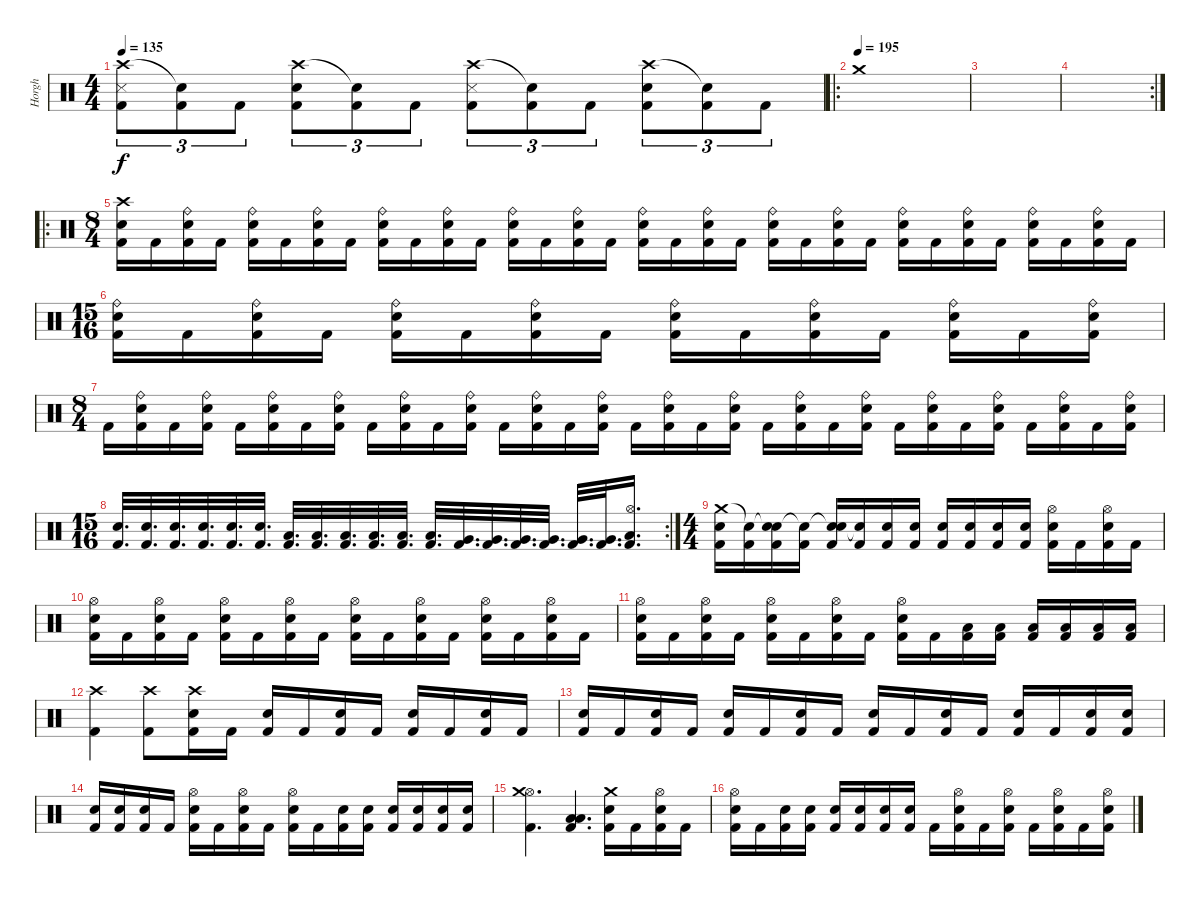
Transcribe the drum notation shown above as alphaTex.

\track ("Horgh" "Horgh") {instrument percussion}
\staff {score}
\articulation defaults
\ts (4 4)
\tempo 135
\clef neutral
\ks c
("Crash high (hit)" "Snare (side stick) 3" "Kick (hit) 2").8{tu (3 2) dy f} ("Snare (hit)"{t} "Kick (hit) 2").8{tu (3 2)} "Kick (hit) 2".8{tu (3 2)} ("Crash high (hit)" "Electric Snare (hit)" "Kick (hit) 2").8{tu (3 2)} ("Snare (hit)"{t} "Kick (hit) 2").8{tu (3 2)} "Kick (hit) 2".8{tu (3 2)} ("Crash high (hit)" "Snare (side stick) 3" "Kick (hit) 2").8{tu (3 2)} ("Snare (hit)"{t} "Kick (hit) 2").8{tu (3 2)} "Kick (hit) 2".8{tu (3 2)} ("Crash high (hit)" "Electric Snare (hit)" "Kick (hit) 2").8{tu (3 2)} ("Snare (hit)"{t} "Kick (hit) 2").8{tu (3 2)} "Kick (hit) 2".8{tu (3 2)} |
\ro
\tempo (195)
"Crash medium (hit)".1 |
|
\rc 2
|
\ro
\ts (8 4)
("Crash high (hit)" "Electric Snare (hit)" "Kick (hit) 2").16 "Kick (hit) 2".16 ("Ride (bell)" "Electric Snare (hit)" "Kick (hit) 2").16 "Kick (hit) 2".16 ("Ride (bell)" "Electric Snare (hit)" "Kick (hit) 2").16 "Kick (hit) 2".16 ("Ride (bell)" "Electric Snare (hit)" "Kick (hit) 2").16 "Kick (hit) 2".16 ("Ride (bell)" "Electric Snare (hit)" "Kick (hit) 2").16 "Kick (hit) 2".16 ("Ride (bell)" "Electric Snare (hit)" "Kick (hit) 2").16 "Kick (hit) 2".16 ("Ride (bell)" "Electric Snare (hit)" "Kick (hit) 2").16 "Kick (hit) 2".16 ("Ride (bell)" "Electric Snare (hit)" "Kick (hit) 2").16 "Kick (hit) 2".16 ("Ride (bell)" "Electric Snare (hit)" "Kick (hit) 2").16 "Kick (hit) 2".16 ("Ride (bell)" "Electric Snare (hit)" "Kick (hit) 2").16 "Kick (hit) 2".16 ("Ride (bell)" "Electric Snare (hit)" "Kick (hit) 2").16 "Kick (hit) 2".16 ("Ride (bell)" "Electric Snare (hit)" "Kick (hit) 2").16 "Kick (hit) 2".16 ("Ride (bell)" "Electric Snare (hit)" "Kick (hit) 2").16 "Kick (hit) 2".16 ("Ride (bell)" "Electric Snare (hit)" "Kick (hit) 2").16 "Kick (hit) 2".16 ("Ride (bell)" "Electric Snare (hit)" "Kick (hit) 2").16 "Kick (hit) 2".16 ("Ride (bell)" "Electric Snare (hit)" "Kick (hit) 2").16 "Kick (hit) 2".16 |
\ts (15 16)
("Ride (bell)" "Electric Snare (hit)" "Kick (hit) 2").16 "Kick (hit) 2".16 ("Ride (bell)" "Electric Snare (hit)" "Kick (hit) 2").16 "Kick (hit) 2".16 ("Ride (bell)" "Electric Snare (hit)" "Kick (hit) 2").16 "Kick (hit) 2".16 ("Ride (bell)" "Electric Snare (hit)" "Kick (hit) 2").16 "Kick (hit) 2".16 ("Ride (bell)" "Electric Snare (hit)" "Kick (hit) 2").16 "Kick (hit) 2".16 ("Ride (bell)" "Electric Snare (hit)" "Kick (hit) 2").16 "Kick (hit) 2".16 ("Ride (bell)" "Electric Snare (hit)" "Kick (hit) 2").16 "Kick (hit) 2".16 ("Ride (bell)" "Electric Snare (hit)" "Kick (hit) 2").16 |
\ts (8 4)
"Kick (hit) 2".16 ("Ride (bell)" "Electric Snare (hit)" "Kick (hit) 2").16 "Kick (hit) 2".16 ("Ride (bell)" "Electric Snare (hit)" "Kick (hit) 2").16 "Kick (hit) 2".16 ("Ride (bell)" "Electric Snare (hit)" "Kick (hit) 2").16 "Kick (hit) 2".16 ("Ride (bell)" "Electric Snare (hit)" "Kick (hit) 2").16 "Kick (hit) 2".16 ("Ride (bell)" "Electric Snare (hit)" "Kick (hit) 2").16 "Kick (hit) 2".16 ("Ride (bell)" "Electric Snare (hit)" "Kick (hit) 2").16 "Kick (hit) 2".16 ("Ride (bell)" "Electric Snare (hit)" "Kick (hit) 2").16 "Kick (hit) 2".16 ("Ride (bell)" "Electric Snare (hit)" "Kick (hit) 2").16 "Kick (hit) 2".16 ("Ride (bell)" "Electric Snare (hit)" "Kick (hit) 2").16 "Kick (hit) 2".16 ("Ride (bell)" "Electric Snare (hit)" "Kick (hit) 2").16 "Kick (hit) 2".16 ("Ride (bell)" "Electric Snare (hit)" "Kick (hit) 2").16 "Kick (hit) 2".16 ("Ride (bell)" "Electric Snare (hit)" "Kick (hit) 2").16 "Kick (hit) 2".16 ("Ride (bell)" "Electric Snare (hit)" "Kick (hit) 2").16 "Kick (hit) 2".16 ("Ride (bell)" "Electric Snare (hit)" "Kick (hit) 2").16 "Kick (hit) 2".16 ("Ride (bell)" "Electric Snare (hit)" "Kick (hit) 2").16 "Kick (hit) 2".16 ("Ride (bell)" "Electric Snare (hit)" "Kick (hit) 2").16 |
\rc 2
\ts (15 16)
("Electric Snare (hit)" "Kick (hit) 2").32{d} ("Electric Snare (hit)" "Kick (hit) 2").32{d} ("Electric Snare (hit)" "Kick (hit) 2").32{d} ("Electric Snare (hit)" "Kick (hit) 2").32{d} ("Electric Snare (hit)" "Kick (hit) 2").32{d} ("Electric Snare (hit)" "Kick (hit) 2").32{d} ("Low Floor Tom (hit)" "Kick (hit) 2").32{d} ("Low Floor Tom (hit)" "Kick (hit) 2").32{d} ("Low Floor Tom (hit)" "Kick (hit) 2").32{d} ("Low Floor Tom (hit)" "Kick (hit) 2").32{d} ("Low Floor Tom (hit)" "Kick (hit) 2").32{d} ("Low Floor Tom (hit)" "Kick (hit) 2").32{d} ("Very Low Tom (hit)" "Kick (hit) 2").32{d} ("Very Low Tom (hit)" "Kick (hit) 2").32{d} ("Very Low Tom (hit)" "Kick (hit) 2").32{d} ("Very Low Tom (hit)" "Kick (hit) 2").32{d} ("Very Low Tom (hit)" "Kick (hit) 2").32{d} ("Very Low Tom (hit)" "Kick (hit) 2").32{d} ("Hi-Hat (open)" "Low Tom (hit)" "Kick (hit) 2").16{d} |
\ts (4 4)
("Crash medium (hit)" "Electric Snare (hit)" "Kick (hit) 2").16 ("Snare (hit)"{t} "Kick (hit) 2").16 ("Snare (hit)"{t} "Electric Snare (hit)" "Kick (hit) 2").16 ("Snare (hit)"{t} "Kick (hit) 2").16 ("Snare (hit)"{t} "Electric Snare (hit)" "Kick (hit) 2").16 ("Snare (hit)"{t} "Kick (hit) 2").16 ("Electric Snare (hit)" "Kick (hit) 2").16 ("Electric Snare (hit)" "Kick (hit) 2").16 ("Electric Snare (hit)" "Kick (hit) 2").16 ("Electric Snare (hit)" "Kick (hit) 2").16 ("Electric Snare (hit)" "Kick (hit) 2").16 ("Electric Snare (hit)" "Kick (hit) 2").16 ("Hi-Hat (open)" "Electric Snare (hit)" "Kick (hit) 2").16 "Kick (hit) 2".16 ("Hi-Hat (open)" "Electric Snare (hit)" "Kick (hit) 2").16 "Kick (hit) 2".16 |
("Hi-Hat (open)" "Electric Snare (hit)" "Kick (hit) 2").16 "Kick (hit) 2".16 ("Hi-Hat (open)" "Electric Snare (hit)" "Kick (hit) 2").16 "Kick (hit) 2".16 ("Hi-Hat (open)" "Electric Snare (hit)" "Kick (hit) 2").16 "Kick (hit) 2".16 ("Hi-Hat (open)" "Electric Snare (hit)" "Kick (hit) 2").16 "Kick (hit) 2".16 ("Hi-Hat (open)" "Electric Snare (hit)" "Kick (hit) 2").16 "Kick (hit) 2".16 ("Hi-Hat (open)" "Electric Snare (hit)" "Kick (hit) 2").16 "Kick (hit) 2".16 ("Hi-Hat (open)" "Electric Snare (hit)" "Kick (hit) 2").16 "Kick (hit) 2".16 ("Hi-Hat (open)" "Electric Snare (hit)" "Kick (hit) 2").16 "Kick (hit) 2".16 |
("Hi-Hat (open)" "Electric Snare (hit)" "Kick (hit) 2").16 "Kick (hit) 2".16 ("Hi-Hat (open)" "Electric Snare (hit)" "Kick (hit) 2").16 "Kick (hit) 2".16 ("Hi-Hat (open)" "Electric Snare (hit)" "Kick (hit) 2").16 "Kick (hit) 2".16 ("Hi-Hat (open)" "Electric Snare (hit)" "Kick (hit) 2").16 "Kick (hit) 2".16 ("Hi-Hat (open)" "Electric Snare (hit)" "Kick (hit) 2").16 "Kick (hit) 2".16 ("Low Floor Tom (hit)" "Kick (hit) 2").16 ("Low Floor Tom (hit)" "Kick (hit) 2").16 ("Low Floor Tom (hit)" "Kick (hit) 2").16 ("Low Floor Tom (hit)" "Kick (hit) 2").16 ("Low Floor Tom (hit)" "Kick (hit) 2").16 ("Low Floor Tom (hit)" "Kick (hit) 2").16 |
("Crash high (hit)" "Kick (hit) 2").4 ("Crash high (hit)" "Kick (hit) 2").8 ("Crash high (hit)" "Electric Snare (hit)" "Kick (hit) 2").16 "Kick (hit) 2".16 ("Electric Snare (hit)" "Kick (hit) 2").16 "Kick (hit) 2".16 ("Electric Snare (hit)" "Kick (hit) 2").16 "Kick (hit) 2".16 ("Electric Snare (hit)" "Kick (hit) 2").16 "Kick (hit) 2".16 ("Electric Snare (hit)" "Kick (hit) 2").16 "Kick (hit) 2".16 |
("Electric Snare (hit)" "Kick (hit) 2").16 "Kick (hit) 2".16 ("Electric Snare (hit)" "Kick (hit) 2").16 "Kick (hit) 2".16 ("Electric Snare (hit)" "Kick (hit) 2").16 "Kick (hit) 2".16 ("Electric Snare (hit)" "Kick (hit) 2").16 "Kick (hit) 2".16 ("Electric Snare (hit)" "Kick (hit) 2").16 "Kick (hit) 2".16 ("Electric Snare (hit)" "Kick (hit) 2").16 "Kick (hit) 2".16 ("Electric Snare (hit)" "Kick (hit) 2").16 "Kick (hit) 2".16 ("Electric Snare (hit)" "Kick (hit) 2").16 ("Electric Snare (hit)" "Kick (hit) 2").16 |
("Electric Snare (hit)" "Kick (hit) 2").16 ("Electric Snare (hit)" "Kick (hit) 2").16 ("Electric Snare (hit)" "Kick (hit) 2").16 "Kick (hit) 2".16 ("Hi-Hat (open)" "Electric Snare (hit)" "Kick (hit) 2").16 "Kick (hit) 2".16 ("Hi-Hat (open)" "Electric Snare (hit)" "Kick (hit) 2").16 "Kick (hit) 2".16 ("Hi-Hat (open)" "Electric Snare (hit)" "Kick (hit) 2").16 "Kick (hit) 2".16 ("Electric Snare (hit)" "Kick (hit) 2").16 ("Electric Snare (hit)" "Kick (hit) 2").16 ("Electric Snare (hit)" "Kick (hit) 2").16 ("Electric Snare (hit)" "Kick (hit) 2").16 ("Electric Snare (hit)" "Kick (hit) 2").16 ("Electric Snare (hit)" "Kick (hit) 2").16 |
("Hi-Hat (open)" "Crash medium (hit)" "Kick (hit) 2").4{d} ("Low Floor Tom (hit)" "Low Floor Tom (hit)" "Kick (hit) 2").4{d} ("Crash medium (hit)" "Electric Snare (hit)" "Kick (hit) 2").16 "Kick (hit) 2".16 ("Hi-Hat (open)" "Electric Snare (hit)" "Kick (hit) 2").16 "Kick (hit) 2".16 |
("Hi-Hat (open)" "Electric Snare (hit)" "Kick (hit) 2").16 "Kick (hit) 2".16 ("Electric Snare (hit)" "Kick (hit) 2").16 ("Electric Snare (hit)" "Kick (hit) 2").16 ("Electric Snare (hit)" "Kick (hit) 2").16 ("Electric Snare (hit)" "Kick (hit) 2").16 ("Electric Snare (hit)" "Kick (hit) 2").16 ("Electric Snare (hit)" "Kick (hit) 2").16 "Kick (hit) 2".16 ("Hi-Hat (open)" "Electric Snare (hit)" "Kick (hit) 2").16 "Kick (hit) 2".16 ("Hi-Hat (open)" "Electric Snare (hit)" "Kick (hit) 2").16 "Kick (hit) 2".16 ("Hi-Hat (open)" "Electric Snare (hit)" "Kick (hit) 2").16 "Kick (hit) 2".16 ("Hi-Hat (open)" "Electric Snare (hit)" "Kick (hit) 2").16
